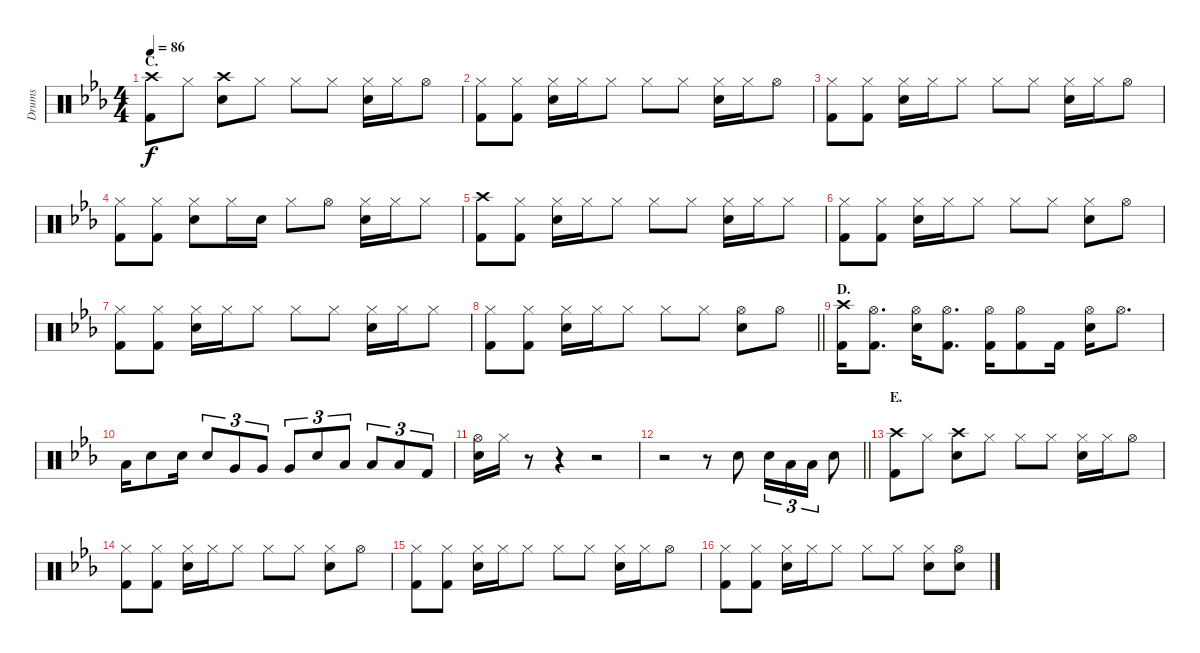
\track ("Drums" "Drums") {instrument percussion}
\staff {score}
\articulation defaults
\ts (4 4)
\section ("" "C.")
\tempo 86
\clef neutral
\ks eb
("Crash high (hit)" "Kick (hit) 2").8{dy f} "Hi-Hat (closed)".8 ("Crash high (hit)" "Snare (hit) 2").8 "Hi-Hat (closed)".8 "Hi-Hat (closed)".8 "Hi-Hat (closed)".8 ("Hi-Hat (closed)" "Snare (hit) 2").16 "Hi-Hat (closed)".16 "Hi-Hat (open)".8 |
("Hi-Hat (closed)" "Kick (hit) 2").8 ("Hi-Hat (closed)" "Kick (hit) 2").8 ("Hi-Hat (closed)" "Snare (hit) 2").16 "Hi-Hat (closed)".16 "Hi-Hat (closed)".8 "Hi-Hat (closed)".8 "Hi-Hat (closed)".8 ("Hi-Hat (closed)" "Snare (hit) 2").16 "Hi-Hat (closed)".16 "Hi-Hat (open)".8 |
("Hi-Hat (closed)" "Kick (hit) 2").8 ("Hi-Hat (closed)" "Kick (hit) 2").8 ("Hi-Hat (closed)" "Snare (hit) 2").16 "Hi-Hat (closed)".16 "Hi-Hat (closed)".8 "Hi-Hat (closed)".8 "Hi-Hat (closed)".8 ("Hi-Hat (closed)" "Snare (hit) 2").16 "Hi-Hat (closed)".16 "Hi-Hat (open)".8 |
("Hi-Hat (closed)" "Kick (hit) 2").8 ("Hi-Hat (closed)" "Kick (hit) 2").8 ("Hi-Hat (closed)" "Snare (hit) 2").8 "Hi-Hat (closed)".16 "Snare (hit) 2".16 "Hi-Hat (closed)".8 "Hi-Hat (open)".8 ("Hi-Hat (closed)" "Snare (hit) 2").16 "Hi-Hat (closed)".16 "Hi-Hat (closed)".8 |
("Crash high (hit)" "Kick (hit) 2").8 ("Hi-Hat (closed)" "Kick (hit) 2").8 ("Hi-Hat (closed)" "Snare (hit) 2").16 "Hi-Hat (closed)".16 "Hi-Hat (closed)".8 "Hi-Hat (closed)".8 "Hi-Hat (closed)".8 ("Hi-Hat (closed)" "Snare (hit) 2").16 "Hi-Hat (closed)".16 "Hi-Hat (closed)".8 |
("Hi-Hat (closed)" "Kick (hit) 2").8 ("Hi-Hat (closed)" "Kick (hit) 2").8 ("Hi-Hat (closed)" "Snare (hit) 2").16 "Hi-Hat (closed)".16 "Hi-Hat (closed)".8 "Hi-Hat (closed)".8 "Hi-Hat (closed)".8 ("Hi-Hat (closed)" "Snare (hit) 2").8 "Hi-Hat (open)".8 |
("Hi-Hat (closed)" "Kick (hit) 2").8 ("Hi-Hat (closed)" "Kick (hit) 2").8 ("Hi-Hat (closed)" "Snare (hit) 2").16 "Hi-Hat (closed)".16 "Hi-Hat (closed)".8 "Hi-Hat (closed)".8 "Hi-Hat (closed)".8 ("Hi-Hat (closed)" "Snare (hit) 2").16 "Hi-Hat (closed)".16 "Hi-Hat (closed)".8 |
\barLineRight lightlight
("Hi-Hat (closed)" "Kick (hit) 2").8 ("Hi-Hat (closed)" "Kick (hit) 2").8 ("Hi-Hat (closed)" "Snare (hit) 2").16 "Hi-Hat (closed)".16 "Hi-Hat (closed)".8 "Hi-Hat (closed)".8 "Hi-Hat (closed)".8 ("Hi-Hat (open)" "Snare (hit) 2").8 "Hi-Hat (open)".8 |
\section ("" "D.")
("Crash high (hit)" "Kick (hit) 2").16 ("Hi-Hat (open)" "Kick (hit) 2").8{d} ("Hi-Hat (open)" "Snare (hit) 2").16 ("Hi-Hat (open)" "Kick (hit) 2").8{d} ("Hi-Hat (open)" "Kick (hit) 2").16 ("Hi-Hat (open)" "Kick (hit) 2").8 "Kick (hit) 2".16 ("Hi-Hat (open)" "Snare (hit) 2").16 "Hi-Hat (open)".8{d} |
"Low Tom (hit)".16 "Snare (hit) 2".8 "Snare (hit) 2".16 "Snare (hit) 2".8{tu (3 2)} "Very Low Tom (hit)".8{tu (3 2)} "Very Low Tom (hit)".8{tu (3 2)} "Very Low Tom (hit)".8{tu (3 2)} "Snare (hit) 2".8{tu (3 2)} "Low Tom (hit)".8{tu (3 2)} "Low Tom (hit)".8{tu (3 2)} "Low Floor Tom (hit)".8{tu (3 2)} "Kick (hit) 2".8{tu (3 2)} |
("Hi-Hat (open)" "Snare (hit) 2").16 "Hi-Hat (closed)".16 r.8 r.4 r.2 |
\barLineRight lightlight
r.2 r.8 "Snare (hit) 2".8 "Snare (hit) 2".16{tu (3 2)} "Low Tom (hit)".16{tu (3 2)} "Low Tom (hit)".16{tu (3 2)} "Snare (hit) 2".8 |
\section ("" "E.")
("Crash high (hit)" "Kick (hit) 2").8 "Hi-Hat (closed)".8 ("Crash high (hit)" "Snare (hit) 2").8 "Hi-Hat (closed)".8 "Hi-Hat (closed)".8 "Hi-Hat (closed)".8 ("Hi-Hat (closed)" "Snare (hit) 2").16 "Hi-Hat (closed)".16 "Hi-Hat (open)".8 |
("Hi-Hat (closed)" "Kick (hit) 2").8 ("Hi-Hat (closed)" "Kick (hit) 2").8 ("Hi-Hat (closed)" "Snare (hit) 2").16 "Hi-Hat (closed)".16 "Hi-Hat (closed)".8 "Hi-Hat (closed)".8 "Hi-Hat (closed)".8 ("Hi-Hat (closed)" "Snare (hit) 2").8 "Hi-Hat (open)".8 |
("Hi-Hat (closed)" "Kick (hit) 2").8 ("Hi-Hat (closed)" "Kick (hit) 2").8 ("Hi-Hat (closed)" "Snare (hit) 2").16 "Hi-Hat (closed)".16 "Hi-Hat (closed)".8 "Hi-Hat (closed)".8 "Hi-Hat (closed)".8 ("Hi-Hat (closed)" "Snare (hit) 2").16 "Hi-Hat (closed)".16 "Hi-Hat (open)".8 |
("Hi-Hat (closed)" "Kick (hit) 2").8 ("Hi-Hat (closed)" "Kick (hit) 2").8 ("Hi-Hat (closed)" "Snare (hit) 2").16 "Hi-Hat (closed)".16 "Hi-Hat (closed)".8 "Hi-Hat (closed)".8 "Hi-Hat (closed)".8 ("Hi-Hat (closed)" "Snare (hit) 2").8 ("Hi-Hat (open)" "Snare (hit) 2").8
